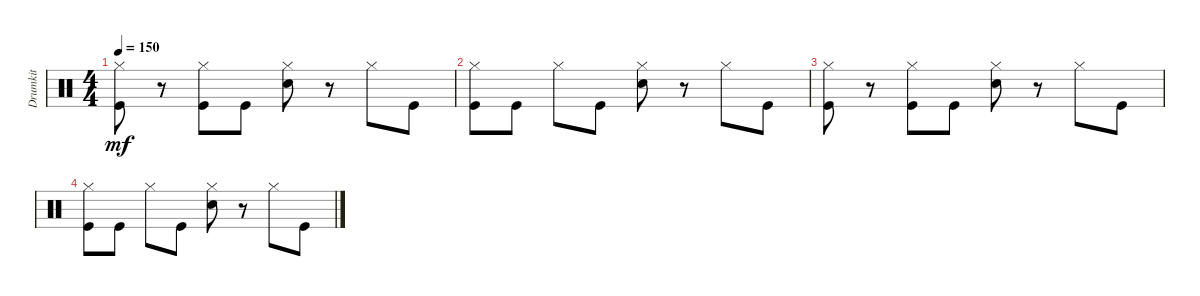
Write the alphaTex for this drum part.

\track ("Drumkit" "Drumkit") {instrument percussion}
\staff {score}
\articulation defaults
\ts (4 4)
\tempo 150
\clef neutral
\ks c
("Kick (hit)" "Hi-Hat (closed)").8{dy mf} r.8 ("Kick (hit)" "Hi-Hat (closed)").8 "Kick (hit)".8 ("Snare (hit) 2" "Hi-Hat (closed)").8 r.8 "Hi-Hat (closed)".8 "Kick (hit)".8 |
("Kick (hit)" "Hi-Hat (closed)").8 "Kick (hit)".8 "Hi-Hat (closed)".8 "Kick (hit)".8 ("Snare (hit) 2" "Hi-Hat (closed)").8 r.8 "Hi-Hat (closed)".8 "Kick (hit)".8 |
("Kick (hit)" "Hi-Hat (closed)").8 r.8 ("Kick (hit)" "Hi-Hat (closed)").8 "Kick (hit)".8 ("Snare (hit) 2" "Hi-Hat (closed)").8 r.8 "Hi-Hat (closed)".8 "Kick (hit)".8 |
("Kick (hit)" "Hi-Hat (closed)").8 "Kick (hit)".8 "Hi-Hat (closed)".8 "Kick (hit)".8 ("Snare (hit) 2" "Hi-Hat (closed)").8 r.8 "Hi-Hat (closed)".8 "Kick (hit)".8
